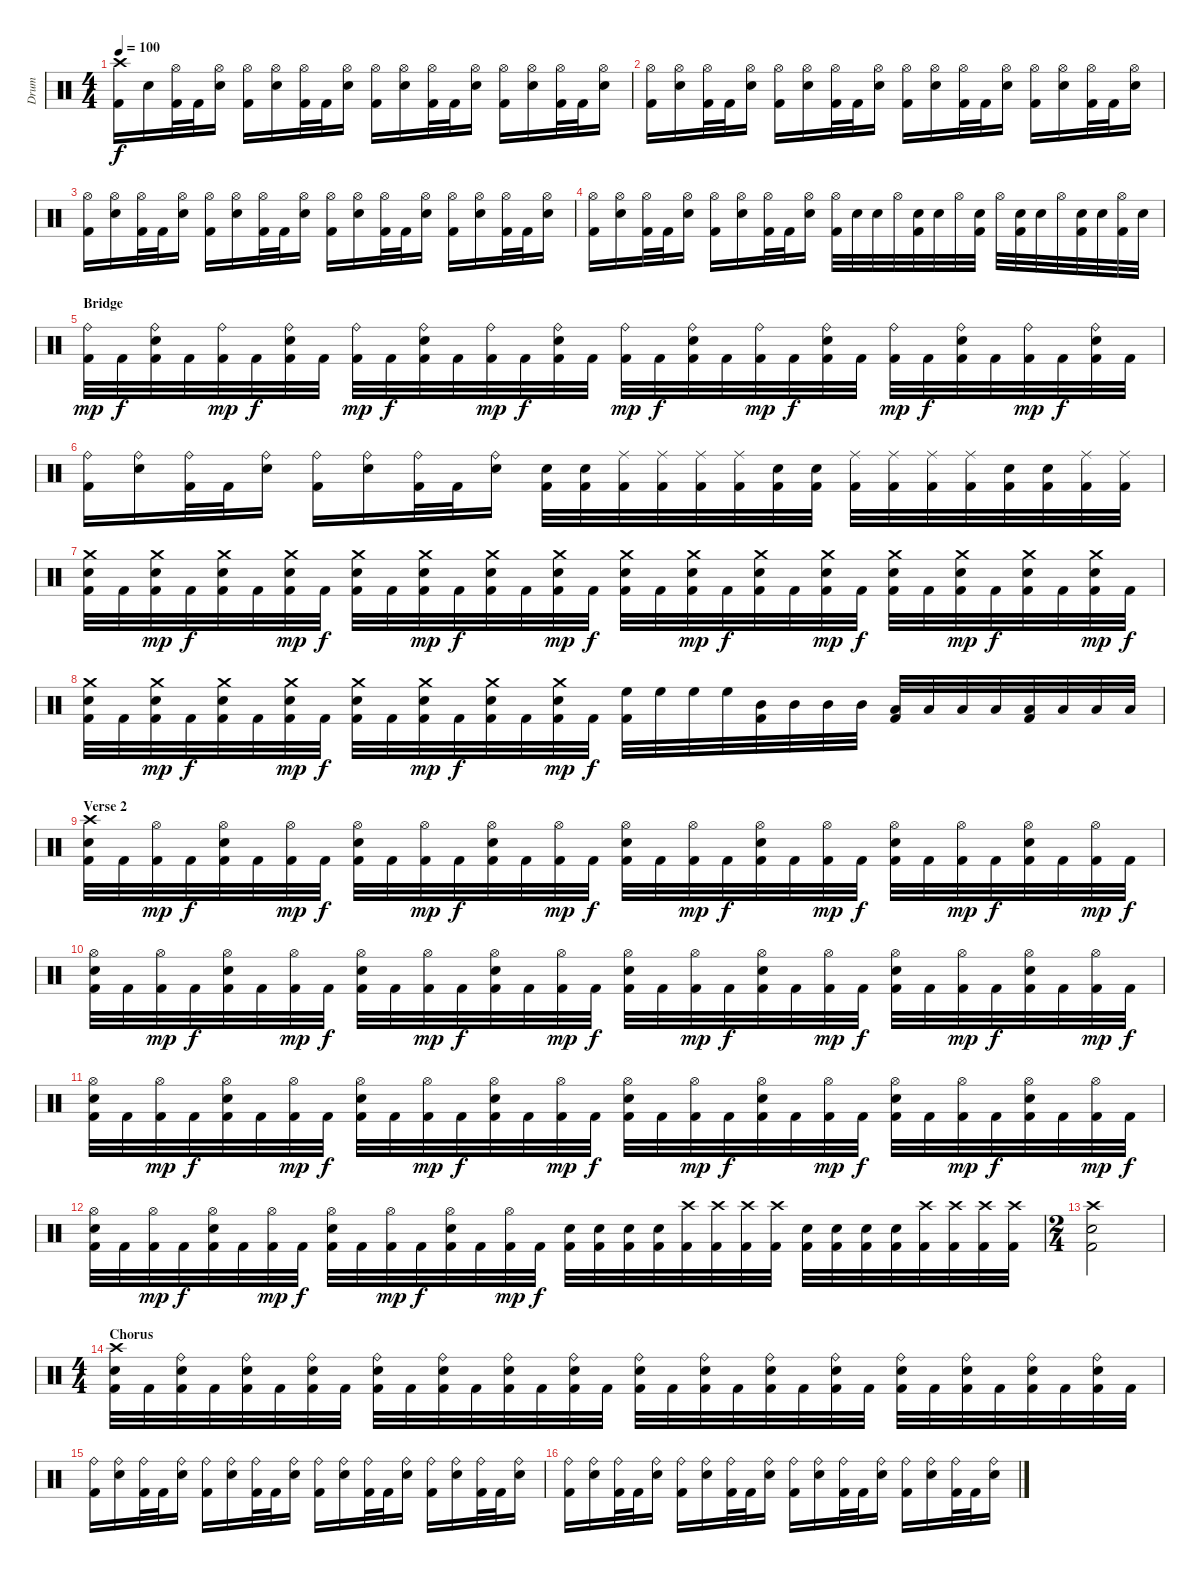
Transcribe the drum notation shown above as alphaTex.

\track ("Drum" "Drum") {instrument percussion}
\staff {score}
\articulation defaults
\ts (4 4)
\tempo 100
\clef neutral
\ks c
("Crash high (hit)" "Kick (hit) 2").16{dy f} "Snare (hit) 2".16 ("Hi-Hat (open)" "Kick (hit) 2").32 "Kick (hit) 2".32 ("Hi-Hat (open)" "Snare (hit) 2").16 ("Hi-Hat (open)" "Kick (hit) 2").16 ("Hi-Hat (open)" "Snare (hit) 2").16 ("Hi-Hat (open)" "Kick (hit) 2").32 "Kick (hit) 2".32 ("Hi-Hat (open)" "Snare (hit) 2").16 ("Hi-Hat (open)" "Kick (hit) 2").16 ("Hi-Hat (open)" "Snare (hit) 2").16 ("Hi-Hat (open)" "Kick (hit) 2").32 "Kick (hit) 2".32 ("Hi-Hat (open)" "Snare (hit) 2").16 ("Hi-Hat (open)" "Kick (hit) 2").16 ("Hi-Hat (open)" "Snare (hit) 2").16 ("Hi-Hat (open)" "Kick (hit) 2").32 "Kick (hit) 2".32 ("Hi-Hat (open)" "Snare (hit) 2").16 |
("Hi-Hat (open)" "Kick (hit) 2").16 ("Hi-Hat (open)" "Snare (hit) 2").16 ("Hi-Hat (open)" "Kick (hit) 2").32 "Kick (hit) 2".32 ("Hi-Hat (open)" "Snare (hit) 2").16 ("Hi-Hat (open)" "Kick (hit) 2").16 ("Hi-Hat (open)" "Snare (hit) 2").16 ("Hi-Hat (open)" "Kick (hit) 2").32 "Kick (hit) 2".32 ("Hi-Hat (open)" "Snare (hit) 2").16 ("Hi-Hat (open)" "Kick (hit) 2").16 ("Hi-Hat (open)" "Snare (hit) 2").16 ("Hi-Hat (open)" "Kick (hit) 2").32 "Kick (hit) 2".32 ("Hi-Hat (open)" "Snare (hit) 2").16 ("Hi-Hat (open)" "Kick (hit) 2").16 ("Hi-Hat (open)" "Snare (hit) 2").16 ("Hi-Hat (open)" "Kick (hit) 2").32 "Kick (hit) 2".32 ("Hi-Hat (open)" "Snare (hit) 2").16 |
("Hi-Hat (open)" "Kick (hit) 2").16 ("Hi-Hat (open)" "Snare (hit) 2").16 ("Hi-Hat (open)" "Kick (hit) 2").32 "Kick (hit) 2".32 ("Hi-Hat (open)" "Snare (hit) 2").16 ("Hi-Hat (open)" "Kick (hit) 2").16 ("Hi-Hat (open)" "Snare (hit) 2").16 ("Hi-Hat (open)" "Kick (hit) 2").32 "Kick (hit) 2".32 ("Hi-Hat (open)" "Snare (hit) 2").16 ("Hi-Hat (open)" "Kick (hit) 2").16 ("Hi-Hat (open)" "Snare (hit) 2").16 ("Hi-Hat (open)" "Kick (hit) 2").32 "Kick (hit) 2".32 ("Hi-Hat (open)" "Snare (hit) 2").16 ("Hi-Hat (open)" "Kick (hit) 2").16 ("Hi-Hat (open)" "Snare (hit) 2").16 ("Hi-Hat (open)" "Kick (hit) 2").32 "Kick (hit) 2".32 ("Hi-Hat (open)" "Snare (hit) 2").16 |
("Hi-Hat (open)" "Kick (hit) 2").16 ("Hi-Hat (open)" "Snare (hit) 2").16 ("Hi-Hat (open)" "Kick (hit) 2").32 "Kick (hit) 2".32 ("Hi-Hat (open)" "Snare (hit) 2").16 ("Hi-Hat (open)" "Kick (hit) 2").16 ("Hi-Hat (open)" "Snare (hit) 2").16 ("Hi-Hat (open)" "Kick (hit) 2").32 "Kick (hit) 2".32 ("Hi-Hat (open)" "Snare (hit) 2").16 ("Hi-Hat (open)" "Kick (hit) 2").32 "Snare (hit) 2".32 "Snare (hit) 2".32 "Hi-Hat (open)".32 ("Snare (hit) 2" "Kick (hit) 2").32 "Snare (hit) 2".32 "Hi-Hat (open)".32 ("Snare (hit) 2" "Kick (hit) 2").32 "Hi-Hat (open)".32 ("Snare (hit) 2" "Kick (hit) 2").32 "Snare (hit) 2".32 "Hi-Hat (open)".32 ("Snare (hit) 2" "Kick (hit) 2").32 "Snare (hit) 2".32 ("Hi-Hat (open)" "Kick (hit) 2").32 "Snare (hit) 2".32 |
\section ("" "Bridge")
("Ride (bell)" "Kick (hit) 2").32{dy mp} "Kick (hit) 2".32{dy f} ("Ride (bell)" "Snare (hit) 2" "Kick (hit) 2").32 "Kick (hit) 2".32 ("Ride (bell)" "Kick (hit) 2").32{dy mp} "Kick (hit) 2".32{dy f} ("Ride (bell)" "Snare (hit) 2" "Kick (hit) 2").32 "Kick (hit) 2".32 ("Ride (bell)" "Kick (hit) 2").32{dy mp} "Kick (hit) 2".32{dy f} ("Ride (bell)" "Snare (hit) 2" "Kick (hit) 2").32 "Kick (hit) 2".32 ("Ride (bell)" "Kick (hit) 2").32{dy mp} "Kick (hit) 2".32{dy f} ("Ride (bell)" "Snare (hit) 2" "Kick (hit) 2").32 "Kick (hit) 2".32 ("Ride (bell)" "Kick (hit) 2").32{dy mp} "Kick (hit) 2".32{dy f} ("Ride (bell)" "Snare (hit) 2" "Kick (hit) 2").32 "Kick (hit) 2".32 ("Ride (bell)" "Kick (hit) 2").32{dy mp} "Kick (hit) 2".32{dy f} ("Ride (bell)" "Snare (hit) 2" "Kick (hit) 2").32 "Kick (hit) 2".32 ("Ride (bell)" "Kick (hit) 2").32{dy mp} "Kick (hit) 2".32{dy f} ("Ride (bell)" "Snare (hit) 2" "Kick (hit) 2").32 "Kick (hit) 2".32 ("Ride (bell)" "Kick (hit) 2").32{dy mp} "Kick (hit) 2".32{dy f} ("Ride (bell)" "Snare (hit) 2" "Kick (hit) 2").32 "Kick (hit) 2".32 |
("Ride (bell)" "Kick (hit) 2").16 ("Ride (bell)" "Snare (hit) 2").16 ("Ride (bell)" "Kick (hit) 2").32 "Kick (hit) 2".32 ("Ride (bell)" "Snare (hit) 2").16 ("Ride (bell)" "Kick (hit) 2").16 ("Ride (bell)" "Snare (hit) 2").16 ("Ride (bell)" "Kick (hit) 2").32 "Kick (hit) 2".32 ("Ride (bell)" "Snare (hit) 2").16 ("Snare (hit) 2" "Kick (hit) 2").32 ("Snare (hit) 2" "Kick (hit) 2").32 ("Ride (middle)" "Kick (hit) 2").32 ("Ride (middle)" "Kick (hit) 2").32 ("Ride (middle)" "Kick (hit) 2").32 ("Ride (middle)" "Kick (hit) 2").32 ("Snare (hit) 2" "Kick (hit) 2").32 ("Snare (hit) 2" "Kick (hit) 2").32 ("Ride (middle)" "Kick (hit) 2").32 ("Ride (middle)" "Kick (hit) 2").32 ("Ride (middle)" "Kick (hit) 2").32 ("Ride (middle)" "Kick (hit) 2").32 ("Snare (hit) 2" "Kick (hit) 2").32 ("Snare (hit) 2" "Kick (hit) 2").32 ("Ride (middle)" "Kick (hit) 2").32 ("Ride (middle)" "Kick (hit) 2").32 |
("Crash medium (hit)" "Snare (hit) 2" "Kick (hit) 2").32 "Kick (hit) 2".32 ("Crash medium (hit)" "Snare (hit) 2" "Kick (hit) 2").32{dy mp} "Kick (hit) 2".32{dy f} ("Crash medium (hit)" "Snare (hit) 2" "Kick (hit) 2").32 "Kick (hit) 2".32 ("Crash medium (hit)" "Snare (hit) 2" "Kick (hit) 2").32{dy mp} "Kick (hit) 2".32{dy f} ("Crash medium (hit)" "Snare (hit) 2" "Kick (hit) 2").32 "Kick (hit) 2".32 ("Crash medium (hit)" "Snare (hit) 2" "Kick (hit) 2").32{dy mp} "Kick (hit) 2".32{dy f} ("Crash medium (hit)" "Snare (hit) 2" "Kick (hit) 2").32 "Kick (hit) 2".32 ("Crash medium (hit)" "Snare (hit) 2" "Kick (hit) 2").32{dy mp} "Kick (hit) 2".32{dy f} ("Crash medium (hit)" "Snare (hit) 2" "Kick (hit) 2").32 "Kick (hit) 2".32 ("Crash medium (hit)" "Snare (hit) 2" "Kick (hit) 2").32{dy mp} "Kick (hit) 2".32{dy f} ("Crash medium (hit)" "Snare (hit) 2" "Kick (hit) 2").32 "Kick (hit) 2".32 ("Crash medium (hit)" "Snare (hit) 2" "Kick (hit) 2").32{dy mp} "Kick (hit) 2".32{dy f} ("Crash medium (hit)" "Snare (hit) 2" "Kick (hit) 2").32 "Kick (hit) 2".32 ("Crash medium (hit)" "Snare (hit) 2" "Kick (hit) 2").32{dy mp} "Kick (hit) 2".32{dy f} ("Crash medium (hit)" "Snare (hit) 2" "Kick (hit) 2").32 "Kick (hit) 2".32 ("Crash medium (hit)" "Snare (hit) 2" "Kick (hit) 2").32{dy mp} "Kick (hit) 2".32{dy f} |
("Crash medium (hit)" "Snare (hit) 2" "Kick (hit) 2").32 "Kick (hit) 2".32 ("Crash medium (hit)" "Snare (hit) 2" "Kick (hit) 2").32{dy mp} "Kick (hit) 2".32{dy f} ("Crash medium (hit)" "Snare (hit) 2" "Kick (hit) 2").32 "Kick (hit) 2".32 ("Crash medium (hit)" "Snare (hit) 2" "Kick (hit) 2").32{dy mp} "Kick (hit) 2".32{dy f} ("Crash medium (hit)" "Snare (hit) 2" "Kick (hit) 2").32 "Kick (hit) 2".32 ("Crash medium (hit)" "Snare (hit) 2" "Kick (hit) 2").32{dy mp} "Kick (hit) 2".32{dy f} ("Crash medium (hit)" "Snare (hit) 2" "Kick (hit) 2").32 "Kick (hit) 2".32 ("Crash medium (hit)" "Snare (hit) 2" "Kick (hit) 2").32{dy mp} "Kick (hit) 2".32{dy f} ("High Floor Tom (hit)" "Kick (hit) 2").32 "High Floor Tom (hit)".32 "High Floor Tom (hit)".32 "High Floor Tom (hit)".32 ("Mid Tom (hit)" "Kick (hit) 2").32 "Mid Tom (hit)".32 "Mid Tom (hit)".32 "Mid Tom (hit)".32 ("Low Tom (hit)" "Kick (hit) 2").32 "Low Tom (hit)".32 "Low Tom (hit)".32 "Low Tom (hit)".32 ("Low Floor Tom (hit)" "Kick (hit) 2").32 "Low Floor Tom (hit)".32 "Low Floor Tom (hit)".32 "Low Floor Tom (hit)".32 |
\section ("" "Verse 2")
("Crash high (hit)" "Snare (hit) 2" "Kick (hit) 2").32 "Kick (hit) 2".32 ("Hi-Hat (open)" "Kick (hit) 2").32{dy mp} "Kick (hit) 2".32{dy f} ("Hi-Hat (open)" "Snare (hit) 2" "Kick (hit) 2").32 "Kick (hit) 2".32 ("Hi-Hat (open)" "Kick (hit) 2").32{dy mp} "Kick (hit) 2".32{dy f} ("Hi-Hat (open)" "Snare (hit) 2" "Kick (hit) 2").32 "Kick (hit) 2".32 ("Hi-Hat (open)" "Kick (hit) 2").32{dy mp} "Kick (hit) 2".32{dy f} ("Hi-Hat (open)" "Snare (hit) 2" "Kick (hit) 2").32 "Kick (hit) 2".32 ("Hi-Hat (open)" "Kick (hit) 2").32{dy mp} "Kick (hit) 2".32{dy f} ("Hi-Hat (open)" "Snare (hit) 2" "Kick (hit) 2").32 "Kick (hit) 2".32 ("Hi-Hat (open)" "Kick (hit) 2").32{dy mp} "Kick (hit) 2".32{dy f} ("Hi-Hat (open)" "Snare (hit) 2" "Kick (hit) 2").32 "Kick (hit) 2".32 ("Hi-Hat (open)" "Kick (hit) 2").32{dy mp} "Kick (hit) 2".32{dy f} ("Hi-Hat (open)" "Snare (hit) 2" "Kick (hit) 2").32 "Kick (hit) 2".32 ("Hi-Hat (open)" "Kick (hit) 2").32{dy mp} "Kick (hit) 2".32{dy f} ("Hi-Hat (open)" "Snare (hit) 2" "Kick (hit) 2").32 "Kick (hit) 2".32 ("Hi-Hat (open)" "Kick (hit) 2").32{dy mp} "Kick (hit) 2".32{dy f} |
("Hi-Hat (open)" "Snare (hit) 2" "Kick (hit) 2").32 "Kick (hit) 2".32 ("Hi-Hat (open)" "Kick (hit) 2").32{dy mp} "Kick (hit) 2".32{dy f} ("Hi-Hat (open)" "Snare (hit) 2" "Kick (hit) 2").32 "Kick (hit) 2".32 ("Hi-Hat (open)" "Kick (hit) 2").32{dy mp} "Kick (hit) 2".32{dy f} ("Hi-Hat (open)" "Snare (hit) 2" "Kick (hit) 2").32 "Kick (hit) 2".32 ("Hi-Hat (open)" "Kick (hit) 2").32{dy mp} "Kick (hit) 2".32{dy f} ("Hi-Hat (open)" "Snare (hit) 2" "Kick (hit) 2").32 "Kick (hit) 2".32 ("Hi-Hat (open)" "Kick (hit) 2").32{dy mp} "Kick (hit) 2".32{dy f} ("Hi-Hat (open)" "Snare (hit) 2" "Kick (hit) 2").32 "Kick (hit) 2".32 ("Hi-Hat (open)" "Kick (hit) 2").32{dy mp} "Kick (hit) 2".32{dy f} ("Hi-Hat (open)" "Snare (hit) 2" "Kick (hit) 2").32 "Kick (hit) 2".32 ("Hi-Hat (open)" "Kick (hit) 2").32{dy mp} "Kick (hit) 2".32{dy f} ("Hi-Hat (open)" "Snare (hit) 2" "Kick (hit) 2").32 "Kick (hit) 2".32 ("Hi-Hat (open)" "Kick (hit) 2").32{dy mp} "Kick (hit) 2".32{dy f} ("Hi-Hat (open)" "Snare (hit) 2" "Kick (hit) 2").32 "Kick (hit) 2".32 ("Hi-Hat (open)" "Kick (hit) 2").32{dy mp} "Kick (hit) 2".32{dy f} |
("Hi-Hat (open)" "Snare (hit) 2" "Kick (hit) 2").32 "Kick (hit) 2".32 ("Hi-Hat (open)" "Kick (hit) 2").32{dy mp} "Kick (hit) 2".32{dy f} ("Hi-Hat (open)" "Snare (hit) 2" "Kick (hit) 2").32 "Kick (hit) 2".32 ("Hi-Hat (open)" "Kick (hit) 2").32{dy mp} "Kick (hit) 2".32{dy f} ("Hi-Hat (open)" "Snare (hit) 2" "Kick (hit) 2").32 "Kick (hit) 2".32 ("Hi-Hat (open)" "Kick (hit) 2").32{dy mp} "Kick (hit) 2".32{dy f} ("Hi-Hat (open)" "Snare (hit) 2" "Kick (hit) 2").32 "Kick (hit) 2".32 ("Hi-Hat (open)" "Kick (hit) 2").32{dy mp} "Kick (hit) 2".32{dy f} ("Hi-Hat (open)" "Snare (hit) 2" "Kick (hit) 2").32 "Kick (hit) 2".32 ("Hi-Hat (open)" "Kick (hit) 2").32{dy mp} "Kick (hit) 2".32{dy f} ("Hi-Hat (open)" "Snare (hit) 2" "Kick (hit) 2").32 "Kick (hit) 2".32 ("Hi-Hat (open)" "Kick (hit) 2").32{dy mp} "Kick (hit) 2".32{dy f} ("Hi-Hat (open)" "Snare (hit) 2" "Kick (hit) 2").32 "Kick (hit) 2".32 ("Hi-Hat (open)" "Kick (hit) 2").32{dy mp} "Kick (hit) 2".32{dy f} ("Hi-Hat (open)" "Snare (hit) 2" "Kick (hit) 2").32 "Kick (hit) 2".32 ("Hi-Hat (open)" "Kick (hit) 2").32{dy mp} "Kick (hit) 2".32{dy f} |
("Hi-Hat (open)" "Snare (hit) 2" "Kick (hit) 2").32 "Kick (hit) 2".32 ("Hi-Hat (open)" "Kick (hit) 2").32{dy mp} "Kick (hit) 2".32{dy f} ("Hi-Hat (open)" "Snare (hit) 2" "Kick (hit) 2").32 "Kick (hit) 2".32 ("Hi-Hat (open)" "Kick (hit) 2").32{dy mp} "Kick (hit) 2".32{dy f} ("Hi-Hat (open)" "Snare (hit) 2" "Kick (hit) 2").32 "Kick (hit) 2".32 ("Hi-Hat (open)" "Kick (hit) 2").32{dy mp} "Kick (hit) 2".32{dy f} ("Hi-Hat (open)" "Snare (hit) 2" "Kick (hit) 2").32 "Kick (hit) 2".32 ("Hi-Hat (open)" "Kick (hit) 2").32{dy mp} "Kick (hit) 2".32{dy f} ("Snare (hit) 2" "Kick (hit) 2").32 ("Snare (hit) 2" "Kick (hit) 2").32 ("Snare (hit) 2" "Kick (hit) 2").32 ("Snare (hit) 2" "Kick (hit) 2").32 ("Crash high (hit)" "Kick (hit) 2").32 ("Crash high (hit)" "Kick (hit) 2").32 ("Crash high (hit)" "Kick (hit) 2").32 ("Crash high (hit)" "Kick (hit) 2").32 ("Snare (hit) 2" "Kick (hit) 2").32 ("Snare (hit) 2" "Kick (hit) 2").32 ("Snare (hit) 2" "Kick (hit) 2").32 ("Snare (hit) 2" "Kick (hit) 2").32 ("Crash high (hit)" "Kick (hit) 2").32 ("Crash high (hit)" "Kick (hit) 2").32 ("Crash high (hit)" "Kick (hit) 2").32 ("Crash high (hit)" "Kick (hit) 2").32 |
\ts (2 4)
("Crash high (hit)" "Snare (hit) 2" "Kick (hit) 2").2 |
\ts (4 4)
\section ("" "Chorus")
("Crash high (hit)" "Snare (hit) 2" "Kick (hit) 2").32 "Kick (hit) 2".32 ("Ride (bell)" "Snare (hit) 2" "Kick (hit) 2").32 "Kick (hit) 2".32 ("Ride (bell)" "Snare (hit) 2" "Kick (hit) 2").32 "Kick (hit) 2".32 ("Ride (bell)" "Snare (hit) 2" "Kick (hit) 2").32 "Kick (hit) 2".32 ("Ride (bell)" "Snare (hit) 2" "Kick (hit) 2").32 "Kick (hit) 2".32 ("Ride (bell)" "Snare (hit) 2" "Kick (hit) 2").32 "Kick (hit) 2".32 ("Ride (bell)" "Snare (hit) 2" "Kick (hit) 2").32 "Kick (hit) 2".32 ("Ride (bell)" "Snare (hit) 2" "Kick (hit) 2").32 "Kick (hit) 2".32 ("Ride (bell)" "Snare (hit) 2" "Kick (hit) 2").32 "Kick (hit) 2".32 ("Ride (bell)" "Snare (hit) 2" "Kick (hit) 2").32 "Kick (hit) 2".32 ("Ride (bell)" "Snare (hit) 2" "Kick (hit) 2").32 "Kick (hit) 2".32 ("Ride (bell)" "Snare (hit) 2" "Kick (hit) 2").32 "Kick (hit) 2".32 ("Ride (bell)" "Snare (hit) 2" "Kick (hit) 2").32 "Kick (hit) 2".32 ("Ride (bell)" "Snare (hit) 2" "Kick (hit) 2").32 "Kick (hit) 2".32 ("Ride (bell)" "Snare (hit) 2" "Kick (hit) 2").32 "Kick (hit) 2".32 ("Ride (bell)" "Snare (hit) 2" "Kick (hit) 2").32 "Kick (hit) 2".32 |
("Ride (bell)" "Kick (hit) 2").16 ("Ride (bell)" "Snare (hit) 2").16 ("Ride (bell)" "Kick (hit) 2").32 "Kick (hit) 2".32 ("Ride (bell)" "Snare (hit) 2").16 ("Ride (bell)" "Kick (hit) 2").16 ("Ride (bell)" "Snare (hit) 2").16 ("Ride (bell)" "Kick (hit) 2").32 "Kick (hit) 2".32 ("Ride (bell)" "Snare (hit) 2").16 ("Ride (bell)" "Kick (hit) 2").16 ("Ride (bell)" "Snare (hit) 2").16 ("Ride (bell)" "Kick (hit) 2").32 "Kick (hit) 2".32 ("Ride (bell)" "Snare (hit) 2").16 ("Ride (bell)" "Kick (hit) 2").16 ("Ride (bell)" "Snare (hit) 2").16 ("Ride (bell)" "Kick (hit) 2").32 "Kick (hit) 2".32 ("Ride (bell)" "Snare (hit) 2").16 |
("Ride (bell)" "Kick (hit) 2").16 ("Ride (bell)" "Snare (hit) 2").16 ("Ride (bell)" "Kick (hit) 2").32 "Kick (hit) 2".32 ("Ride (bell)" "Snare (hit) 2").16 ("Ride (bell)" "Kick (hit) 2").16 ("Ride (bell)" "Snare (hit) 2").16 ("Ride (bell)" "Kick (hit) 2").32 "Kick (hit) 2".32 ("Ride (bell)" "Snare (hit) 2").16 ("Ride (bell)" "Kick (hit) 2").16 ("Ride (bell)" "Snare (hit) 2").16 ("Ride (bell)" "Kick (hit) 2").32 "Kick (hit) 2".32 ("Ride (bell)" "Snare (hit) 2").16 ("Ride (bell)" "Kick (hit) 2").16 ("Ride (bell)" "Snare (hit) 2").16 ("Ride (bell)" "Kick (hit) 2").32 "Kick (hit) 2".32 ("Ride (bell)" "Snare (hit) 2").16
